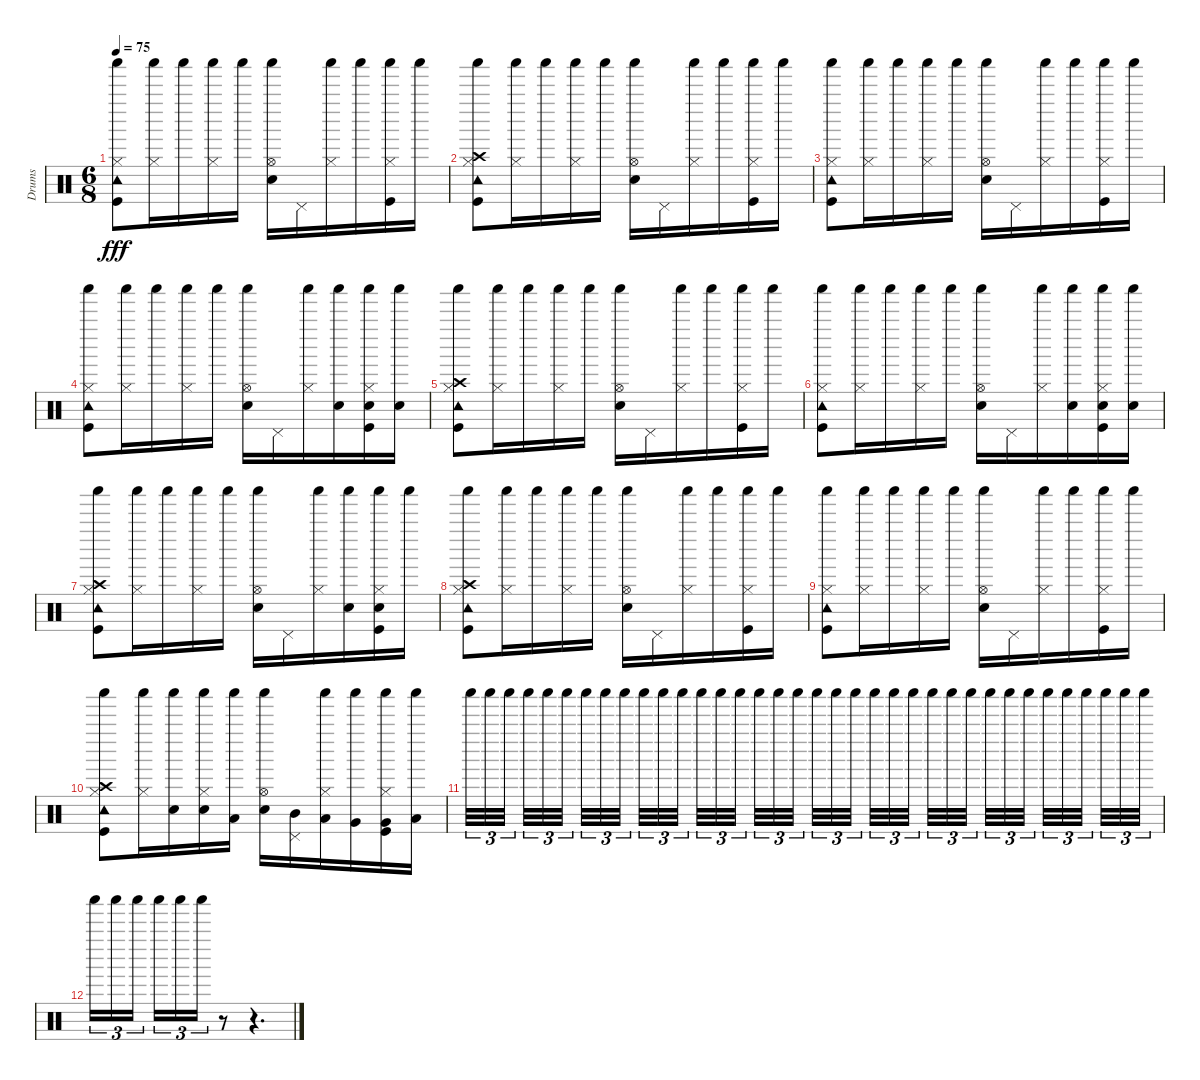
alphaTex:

\track ("Drums" "Drums") {instrument percussion}
\staff {score}
\articulation defaults
\ts (6 8)
\tempo 75
\clef neutral
\ks c
("Hi-Hat (closed)" "Shaker (hit)" "Tambourine (hit)" "Kick (hit)").8{dy fff} ("Hi-Hat (closed)" "Shaker (hit)").16 "Shaker (hit)".16 ("Hi-Hat (closed)" "Shaker (hit)").16 "Shaker (hit)".16 ("Hi-Hat (open)" "Shaker (hit)" "Snare (hit) 2").16 "Pedal Hi-Hat (hit)".16 ("Hi-Hat (closed)" "Shaker (hit)").16 "Shaker (hit)".16 ("Hi-Hat (closed)" "Shaker (hit)" "Kick (hit)").16 "Shaker (hit)".16 |
("Hi-Hat (closed)" "Shaker (hit)" "Tambourine (hit)" "Crash high (hit)" "Kick (hit)").8 ("Hi-Hat (closed)" "Shaker (hit)").16 "Shaker (hit)".16 ("Hi-Hat (closed)" "Shaker (hit)").16 "Shaker (hit)".16 ("Hi-Hat (open)" "Shaker (hit)" "Snare (hit) 2").16 "Pedal Hi-Hat (hit)".16 ("Hi-Hat (closed)" "Shaker (hit)").16 "Shaker (hit)".16 ("Hi-Hat (closed)" "Shaker (hit)" "Kick (hit)").16 "Shaker (hit)".16 |
("Hi-Hat (closed)" "Shaker (hit)" "Tambourine (hit)" "Kick (hit)").8 ("Hi-Hat (closed)" "Shaker (hit)").16 "Shaker (hit)".16 ("Hi-Hat (closed)" "Shaker (hit)").16 "Shaker (hit)".16 ("Hi-Hat (open)" "Shaker (hit)" "Snare (hit) 2").16 "Pedal Hi-Hat (hit)".16 ("Hi-Hat (closed)" "Shaker (hit)").16 "Shaker (hit)".16 ("Hi-Hat (closed)" "Shaker (hit)" "Kick (hit)").16 "Shaker (hit)".16 |
("Hi-Hat (closed)" "Shaker (hit)" "Tambourine (hit)" "Kick (hit)").8 ("Hi-Hat (closed)" "Shaker (hit)").16 "Shaker (hit)".16 ("Hi-Hat (closed)" "Shaker (hit)").16 "Shaker (hit)".16 ("Hi-Hat (open)" "Shaker (hit)" "Snare (hit) 2").16 "Pedal Hi-Hat (hit)".16 ("Hi-Hat (closed)" "Shaker (hit)").16 ("Shaker (hit)" "Snare (hit) 2").16 ("Hi-Hat (closed)" "Shaker (hit)" "Snare (hit) 2" "Kick (hit)").16 ("Shaker (hit)" "Snare (hit) 2").16 |
("Hi-Hat (closed)" "Shaker (hit)" "Tambourine (hit)" "Crash high (hit)" "Kick (hit)").8 ("Hi-Hat (closed)" "Shaker (hit)").16 "Shaker (hit)".16 ("Hi-Hat (closed)" "Shaker (hit)").16 "Shaker (hit)".16 ("Hi-Hat (open)" "Shaker (hit)" "Snare (hit) 2").16 "Pedal Hi-Hat (hit)".16 ("Hi-Hat (closed)" "Shaker (hit)").16 "Shaker (hit)".16 ("Hi-Hat (closed)" "Shaker (hit)" "Kick (hit)").16 "Shaker (hit)".16 |
("Hi-Hat (closed)" "Shaker (hit)" "Tambourine (hit)" "Kick (hit)").8 ("Hi-Hat (closed)" "Shaker (hit)").16 "Shaker (hit)".16 ("Hi-Hat (closed)" "Shaker (hit)").16 "Shaker (hit)".16 ("Hi-Hat (open)" "Shaker (hit)" "Snare (hit) 2").16 "Pedal Hi-Hat (hit)".16 ("Hi-Hat (closed)" "Shaker (hit)").16 ("Shaker (hit)" "Snare (hit) 2").16 ("Hi-Hat (closed)" "Shaker (hit)" "Snare (hit) 2" "Kick (hit)").16 ("Shaker (hit)" "Snare (hit) 2").16 |
("Hi-Hat (closed)" "Shaker (hit)" "Tambourine (hit)" "Crash high (hit)" "Kick (hit)").8 ("Hi-Hat (closed)" "Shaker (hit)").16 "Shaker (hit)".16 ("Hi-Hat (closed)" "Shaker (hit)").16 "Shaker (hit)".16 ("Hi-Hat (open)" "Shaker (hit)" "Snare (hit) 2").16 "Pedal Hi-Hat (hit)".16 ("Hi-Hat (closed)" "Shaker (hit)").16 ("Shaker (hit)" "Snare (hit) 2").16 ("Hi-Hat (closed)" "Shaker (hit)" "Snare (hit) 2" "Kick (hit)").16 "Shaker (hit)".16 |
("Hi-Hat (closed)" "Shaker (hit)" "Tambourine (hit)" "Crash high (hit)" "Kick (hit)").8 ("Hi-Hat (closed)" "Shaker (hit)").16 "Shaker (hit)".16 ("Hi-Hat (closed)" "Shaker (hit)").16 "Shaker (hit)".16 ("Hi-Hat (open)" "Shaker (hit)" "Snare (hit) 2").16 "Pedal Hi-Hat (hit)".16 ("Hi-Hat (closed)" "Shaker (hit)").16 "Shaker (hit)".16 ("Hi-Hat (closed)" "Shaker (hit)" "Kick (hit)").16 "Shaker (hit)".16 |
("Hi-Hat (closed)" "Shaker (hit)" "Tambourine (hit)" "Kick (hit)").8 ("Hi-Hat (closed)" "Shaker (hit)").16 "Shaker (hit)".16 ("Hi-Hat (closed)" "Shaker (hit)").16 "Shaker (hit)".16 ("Hi-Hat (open)" "Shaker (hit)" "Snare (hit) 2").16 "Pedal Hi-Hat (hit)".16 ("Hi-Hat (closed)" "Shaker (hit)").16 "Shaker (hit)".16 ("Hi-Hat (closed)" "Shaker (hit)" "Kick (hit)").16 "Shaker (hit)".16 |
("Hi-Hat (closed)" "Shaker (hit)" "Tambourine (hit)" "Crash high (hit)" "Kick (hit)").8 ("Hi-Hat (closed)" "Shaker (hit)").16 ("Shaker (hit)" "Snare (hit) 2").16 ("Hi-Hat (closed)" "Shaker (hit)" "Snare (hit) 2").16 ("Shaker (hit)" "Low Tom (hit)").16 ("Hi-Hat (open)" "Shaker (hit)" "Snare (hit) 2").16 ("Pedal Hi-Hat (hit)" "Mid Tom (hit)").16 ("Hi-Hat (closed)" "Shaker (hit)" "Low Tom (hit)").16 ("Shaker (hit)" "Very Low Tom (hit)").16 ("Hi-Hat (closed)" "Shaker (hit)" "Very Low Tom (hit)" "Kick (hit)").16 ("Shaker (hit)" "Low Floor Tom (hit)").16 |
"Shaker (hit)".32{tu (3 2)} "Shaker (hit)".32{tu (3 2)} "Shaker (hit)".32{tu (3 2)} "Shaker (hit)".32{tu (3 2)} "Shaker (hit)".32{tu (3 2)} "Shaker (hit)".32{tu (3 2)} "Shaker (hit)".32{tu (3 2)} "Shaker (hit)".32{tu (3 2)} "Shaker (hit)".32{tu (3 2)} "Shaker (hit)".32{tu (3 2)} "Shaker (hit)".32{tu (3 2)} "Shaker (hit)".32{tu (3 2)} "Shaker (hit)".32{tu (3 2)} "Shaker (hit)".32{tu (3 2)} "Shaker (hit)".32{tu (3 2)} "Shaker (hit)".32{tu (3 2)} "Shaker (hit)".32{tu (3 2)} "Shaker (hit)".32{tu (3 2)} "Shaker (hit)".32{tu (3 2)} "Shaker (hit)".32{tu (3 2)} "Shaker (hit)".32{tu (3 2)} "Shaker (hit)".32{tu (3 2)} "Shaker (hit)".32{tu (3 2)} "Shaker (hit)".32{tu (3 2)} "Shaker (hit)".32{tu (3 2)} "Shaker (hit)".32{tu (3 2)} "Shaker (hit)".32{tu (3 2)} "Shaker (hit)".32{tu (3 2)} "Shaker (hit)".32{tu (3 2)} "Shaker (hit)".32{tu (3 2)} "Shaker (hit)".32{tu (3 2)} "Shaker (hit)".32{tu (3 2)} "Shaker (hit)".32{tu (3 2)} "Shaker (hit)".32{tu (3 2)} "Shaker (hit)".32{tu (3 2)} "Shaker (hit)".32{tu (3 2)} |
"Shaker (hit)".16{tu (3 2)} "Shaker (hit)".16{tu (3 2)} "Shaker (hit)".16{tu (3 2)} "Shaker (hit)".16{tu (3 2)} "Shaker (hit)".16{tu (3 2)} "Shaker (hit)".16{tu (3 2)} r.8 r.4{d}
